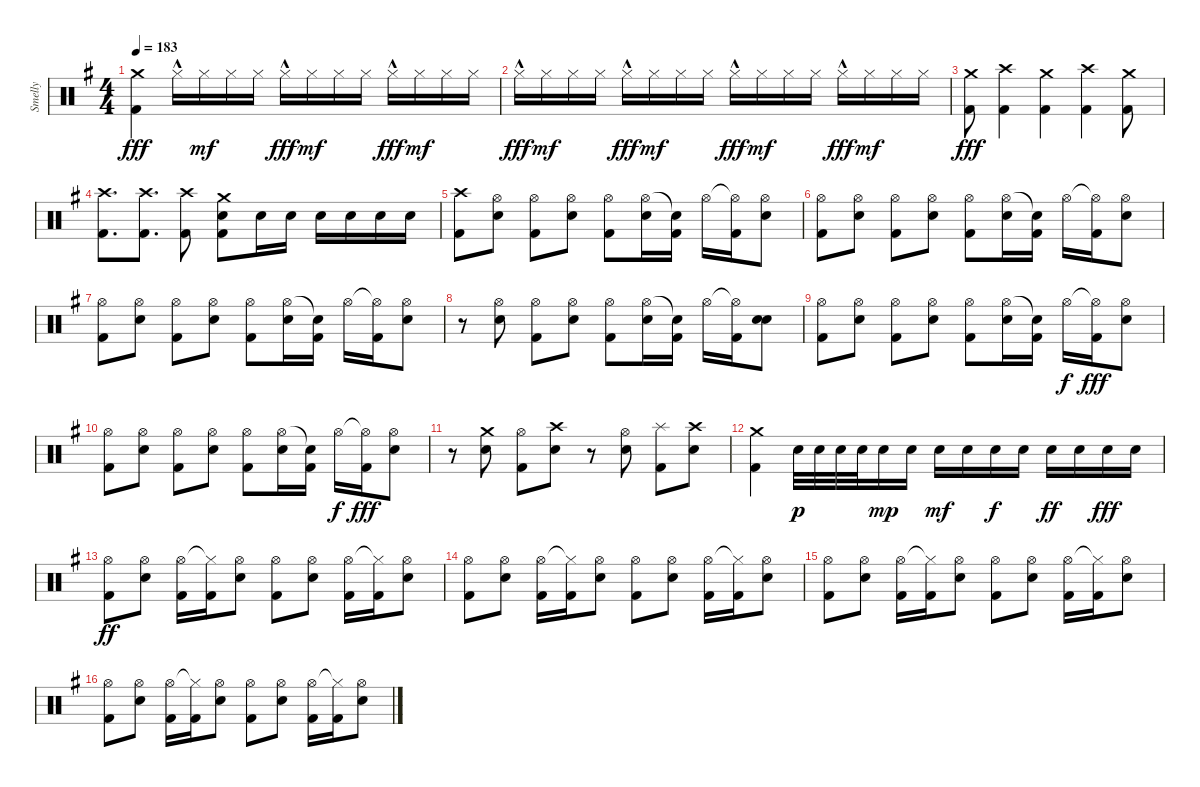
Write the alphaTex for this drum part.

\track ("Smelly" "Smelly") {instrument percussion}
\staff {score}
\articulation defaults
\ts (4 4)
\tempo 183
\clef neutral
\ks eminor
("Crash medium (hit)" "Kick (hit) 2").4{dy fff} "Hi-Hat (closed)"{hac}.16 "Hi-Hat (closed)".16{dy mf} "Hi-Hat (closed)".16 "Hi-Hat (closed)".16 "Hi-Hat (closed)"{hac}.16{dy fff} "Hi-Hat (closed)".16{dy mf} "Hi-Hat (closed)".16 "Hi-Hat (closed)".16 "Hi-Hat (closed)"{hac}.16{dy fff} "Hi-Hat (closed)".16{dy mf} "Hi-Hat (closed)".16 "Hi-Hat (closed)".16 |
"Hi-Hat (closed)"{hac}.16{dy fff} "Hi-Hat (closed)".16{dy mf} "Hi-Hat (closed)".16 "Hi-Hat (closed)".16 "Hi-Hat (closed)"{hac}.16{dy fff} "Hi-Hat (closed)".16{dy mf} "Hi-Hat (closed)".16 "Hi-Hat (closed)".16 "Hi-Hat (closed)"{hac}.16{dy fff} "Hi-Hat (closed)".16{dy mf} "Hi-Hat (closed)".16 "Hi-Hat (closed)".16 "Hi-Hat (closed)"{hac}.16{dy fff} "Hi-Hat (closed)".16{dy mf} "Hi-Hat (closed)".16 "Hi-Hat (closed)".16 |
("Crash medium (hit)" "Kick (hit) 2").8{dy fff} ("Crash high (hit)" "Kick (hit) 2").4 ("Crash medium (hit)" "Kick (hit) 2").4 ("Crash high (hit)" "Kick (hit) 2").4 ("Crash medium (hit)" "Kick (hit) 2").8 |
("Crash high (hit)" "Kick (hit) 2").8{d} ("Crash high (hit)" "Kick (hit) 2").8{d} ("Crash high (hit)" "Kick (hit) 2").8 ("Crash medium (hit)" "Electric Snare (hit)" "Kick (hit) 2").8 "Electric Snare (hit)".16 "Electric Snare (hit)".16 "Electric Snare (hit)".16 "Electric Snare (hit)".16 "Electric Snare (hit)".16 "Electric Snare (hit)".16 |
("Crash high (hit)" "Kick (hit) 2").8 ("Hi-Hat (open)" "Electric Snare (hit)").8 ("Hi-Hat (open)" "Kick (hit) 2").8 ("Hi-Hat (open)" "Electric Snare (hit)").8 ("Hi-Hat (open)" "Kick (hit) 2").8 ("Hi-Hat (open)" "Electric Snare (hit)").16 ("Snare (hit)"{t} "Kick (hit) 2").16 "Hi-Hat (open)".16 ("Hi-Hat (open)"{t} "Kick (hit) 2").16 ("Hi-Hat (open)" "Electric Snare (hit)").8 |
("Hi-Hat (open)" "Kick (hit) 2").8 ("Hi-Hat (open)" "Electric Snare (hit)").8 ("Hi-Hat (open)" "Kick (hit) 2").8 ("Hi-Hat (open)" "Electric Snare (hit)").8 ("Hi-Hat (open)" "Kick (hit) 2").8 ("Hi-Hat (open)" "Electric Snare (hit)").16 ("Snare (hit)"{t} "Kick (hit) 2").16 "Hi-Hat (open)".16 ("Hi-Hat (open)"{t} "Kick (hit) 2").16 ("Hi-Hat (open)" "Electric Snare (hit)").8 |
("Hi-Hat (open)" "Kick (hit) 2").8 ("Hi-Hat (open)" "Electric Snare (hit)").8 ("Hi-Hat (open)" "Kick (hit) 2").8 ("Hi-Hat (open)" "Electric Snare (hit)").8 ("Hi-Hat (open)" "Kick (hit) 2").8 ("Hi-Hat (open)" "Electric Snare (hit)").16 ("Snare (hit)"{t} "Kick (hit) 2").16 "Hi-Hat (open)".16 ("Hi-Hat (open)"{t} "Kick (hit) 2").16 ("Hi-Hat (open)" "Electric Snare (hit)").8 |
r.8 ("Hi-Hat (open)" "Electric Snare (hit)").8 ("Hi-Hat (open)" "Kick (hit) 2").8 ("Hi-Hat (open)" "Electric Snare (hit)").8 ("Hi-Hat (open)" "Kick (hit) 2").8 ("Hi-Hat (open)" "Electric Snare (hit)").16 ("Snare (hit)"{t} "Kick (hit) 2").16 "Hi-Hat (open)".16 ("Hi-Hat (open)"{t} "Kick (hit) 2").16 ("Electric Snare (hit)" "Electric Snare (hit)").8 |
("Hi-Hat (open)" "Kick (hit) 2").8 ("Hi-Hat (open)" "Electric Snare (hit)").8 ("Hi-Hat (open)" "Kick (hit) 2").8 ("Hi-Hat (open)" "Electric Snare (hit)").8 ("Hi-Hat (open)" "Kick (hit) 2").8 ("Hi-Hat (open)" "Electric Snare (hit)").16 ("Snare (hit)"{t} "Kick (hit) 2").16 "Hi-Hat (open)".16{dy f} ("Hi-Hat (open)"{t} "Kick (hit) 2").16{dy fff} ("Hi-Hat (open)" "Electric Snare (hit)").8 |
("Hi-Hat (open)" "Kick (hit) 2").8 ("Hi-Hat (open)" "Electric Snare (hit)").8 ("Hi-Hat (open)" "Kick (hit) 2").8 ("Hi-Hat (open)" "Electric Snare (hit)").8 ("Hi-Hat (open)" "Kick (hit) 2").8 ("Hi-Hat (open)" "Electric Snare (hit)").16 ("Snare (hit)"{t} "Kick (hit) 2").16 "Hi-Hat (open)".16{dy f} ("Hi-Hat (open)"{t} "Kick (hit) 2").16{dy fff} ("Hi-Hat (open)" "Electric Snare (hit)").8 |
r.8 ("Crash medium (hit)" "Electric Snare (hit)").8 ("Hi-Hat (open)" "Kick (hit) 2").8 ("Crash high (hit)" "Electric Snare (hit)").8 r.8 ("Hi-Hat (open)" "Electric Snare (hit)").8 ("Splash (hit)" "Kick (hit) 2").8 ("Crash high (hit)" "Electric Snare (hit)").8 |
("Crash medium (hit)" "Kick (hit) 2").4 "Electric Snare (hit)".32{dy p} "Electric Snare (hit)".32 "Electric Snare (hit)".32 "Electric Snare (hit)".32 "Electric Snare (hit)".16{dy mp} "Electric Snare (hit)".16 "Electric Snare (hit)".16{dy mf} "Electric Snare (hit)".16 "Electric Snare (hit)".16{dy f} "Electric Snare (hit)".16 "Electric Snare (hit)".16{dy ff} "Electric Snare (hit)".16 "Electric Snare (hit)".16{dy fff} "Electric Snare (hit)".16 |
("Hi-Hat (open)" "Kick (hit) 2").8{dy ff} ("Hi-Hat (open)" "Electric Snare (hit)").8 ("Hi-Hat (open)" "Kick (hit) 2").16 ("Hi-Hat (closed)"{t} "Kick (hit) 2").16 ("Hi-Hat (open)" "Electric Snare (hit)").8 ("Hi-Hat (open)" "Kick (hit) 2").8 ("Hi-Hat (open)" "Electric Snare (hit)").8 ("Hi-Hat (open)" "Kick (hit) 2").16 ("Hi-Hat (closed)"{t} "Kick (hit) 2").16 ("Hi-Hat (open)" "Electric Snare (hit)").8 |
("Hi-Hat (open)" "Kick (hit) 2").8 ("Hi-Hat (open)" "Electric Snare (hit)").8 ("Hi-Hat (open)" "Kick (hit) 2").16 ("Hi-Hat (closed)"{t} "Kick (hit) 2").16 ("Hi-Hat (open)" "Electric Snare (hit)").8 ("Hi-Hat (open)" "Kick (hit) 2").8 ("Hi-Hat (open)" "Electric Snare (hit)").8 ("Hi-Hat (open)" "Kick (hit) 2").16 ("Hi-Hat (closed)"{t} "Kick (hit) 2").16 ("Hi-Hat (open)" "Electric Snare (hit)").8 |
("Hi-Hat (open)" "Kick (hit) 2").8 ("Hi-Hat (open)" "Electric Snare (hit)").8 ("Hi-Hat (open)" "Kick (hit) 2").16 ("Hi-Hat (closed)"{t} "Kick (hit) 2").16 ("Hi-Hat (open)" "Electric Snare (hit)").8 ("Hi-Hat (open)" "Kick (hit) 2").8 ("Hi-Hat (open)" "Electric Snare (hit)").8 ("Hi-Hat (open)" "Kick (hit) 2").16 ("Hi-Hat (closed)"{t} "Kick (hit) 2").16 ("Hi-Hat (open)" "Electric Snare (hit)").8 |
("Hi-Hat (open)" "Kick (hit) 2").8 ("Hi-Hat (open)" "Electric Snare (hit)").8 ("Hi-Hat (open)" "Kick (hit) 2").16 ("Hi-Hat (closed)"{t} "Kick (hit) 2").16 ("Hi-Hat (open)" "Electric Snare (hit)").8 ("Hi-Hat (open)" "Kick (hit) 2").8 ("Hi-Hat (open)" "Electric Snare (hit)").8 ("Hi-Hat (open)" "Kick (hit) 2").16 ("Hi-Hat (closed)"{t} "Kick (hit) 2").16 ("Hi-Hat (open)" "Electric Snare (hit)").8
